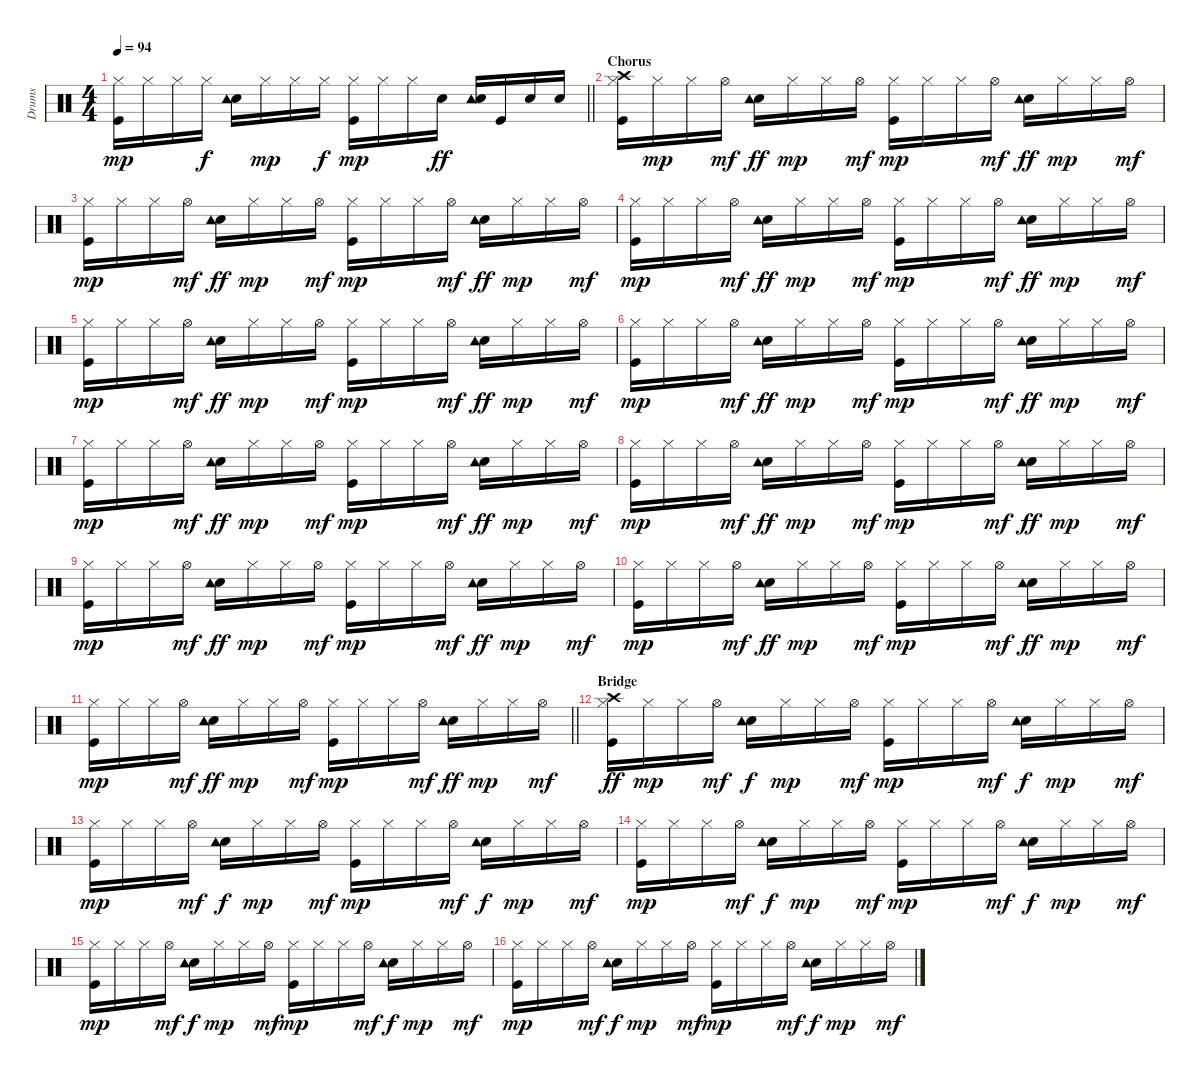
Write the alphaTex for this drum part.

\track ("Drums" "Drums") {instrument percussion}
\staff {score}
\articulation defaults
\ts (4 4)
\tempo 94
\clef neutral
\barLineRight lightlight
\ks c
("Hi-Hat (closed)" "Kick (hit)").16{dy mp} "Hi-Hat (closed)".16 "Hi-Hat (closed)".16 "Hi-Hat (closed)".16{dy f} ("Snare (hit) 2" "Tambourine (hit)").16 "Hi-Hat (closed)".16{dy mp} "Hi-Hat (closed)".16 "Hi-Hat (closed)".16{dy f} ("Hi-Hat (closed)" "Kick (hit)").16{dy mp} "Hi-Hat (closed)".16 "Hi-Hat (closed)".16 "Snare (hit) 2".16{dy ff} ("Tambourine (hit)" "Snare (hit) 2").16 "Kick (hit)".16 "Snare (hit) 2".16 "Snare (hit) 2".16 |
\section ("" "Chorus")
("Hi-Hat (closed)" "Kick (hit)" "Crash high (hit)").16 "Hi-Hat (closed)".16{dy mp} "Hi-Hat (closed)".16 "Hi-Hat (open)".16{dy mf} ("Snare (hit) 2" "Tambourine (hit)").16{dy ff} "Hi-Hat (closed)".16{dy mp} "Hi-Hat (closed)".16 "Hi-Hat (open)".16{dy mf} ("Hi-Hat (closed)" "Kick (hit)").16{dy mp} "Hi-Hat (closed)".16 "Hi-Hat (closed)".16 "Hi-Hat (open)".16{dy mf} ("Snare (hit) 2" "Tambourine (hit)").16{dy ff} "Hi-Hat (closed)".16{dy mp} "Hi-Hat (closed)".16 "Hi-Hat (open)".16{dy mf} |
("Hi-Hat (closed)" "Kick (hit)").16{dy mp} "Hi-Hat (closed)".16 "Hi-Hat (closed)".16 "Hi-Hat (open)".16{dy mf} ("Snare (hit) 2" "Tambourine (hit)").16{dy ff} "Hi-Hat (closed)".16{dy mp} "Hi-Hat (closed)".16 "Hi-Hat (open)".16{dy mf} ("Hi-Hat (closed)" "Kick (hit)").16{dy mp} "Hi-Hat (closed)".16 "Hi-Hat (closed)".16 "Hi-Hat (open)".16{dy mf} ("Snare (hit) 2" "Tambourine (hit)").16{dy ff} "Hi-Hat (closed)".16{dy mp} "Hi-Hat (closed)".16 "Hi-Hat (open)".16{dy mf} |
("Hi-Hat (closed)" "Kick (hit)").16{dy mp} "Hi-Hat (closed)".16 "Hi-Hat (closed)".16 "Hi-Hat (open)".16{dy mf} ("Snare (hit) 2" "Tambourine (hit)").16{dy ff} "Hi-Hat (closed)".16{dy mp} "Hi-Hat (closed)".16 "Hi-Hat (open)".16{dy mf} ("Hi-Hat (closed)" "Kick (hit)").16{dy mp} "Hi-Hat (closed)".16 "Hi-Hat (closed)".16 "Hi-Hat (open)".16{dy mf} ("Snare (hit) 2" "Tambourine (hit)").16{dy ff} "Hi-Hat (closed)".16{dy mp} "Hi-Hat (closed)".16 "Hi-Hat (open)".16{dy mf} |
("Hi-Hat (closed)" "Kick (hit)").16{dy mp} "Hi-Hat (closed)".16 "Hi-Hat (closed)".16 "Hi-Hat (open)".16{dy mf} ("Snare (hit) 2" "Tambourine (hit)").16{dy ff} "Hi-Hat (closed)".16{dy mp} "Hi-Hat (closed)".16 "Hi-Hat (open)".16{dy mf} ("Hi-Hat (closed)" "Kick (hit)").16{dy mp} "Hi-Hat (closed)".16 "Hi-Hat (closed)".16 "Hi-Hat (open)".16{dy mf} ("Snare (hit) 2" "Tambourine (hit)").16{dy ff} "Hi-Hat (closed)".16{dy mp} "Hi-Hat (closed)".16 "Hi-Hat (open)".16{dy mf} |
("Hi-Hat (closed)" "Kick (hit)").16{dy mp} "Hi-Hat (closed)".16 "Hi-Hat (closed)".16 "Hi-Hat (open)".16{dy mf} ("Snare (hit) 2" "Tambourine (hit)").16{dy ff} "Hi-Hat (closed)".16{dy mp} "Hi-Hat (closed)".16 "Hi-Hat (open)".16{dy mf} ("Hi-Hat (closed)" "Kick (hit)").16{dy mp} "Hi-Hat (closed)".16 "Hi-Hat (closed)".16 "Hi-Hat (open)".16{dy mf} ("Snare (hit) 2" "Tambourine (hit)").16{dy ff} "Hi-Hat (closed)".16{dy mp} "Hi-Hat (closed)".16 "Hi-Hat (open)".16{dy mf} |
("Hi-Hat (closed)" "Kick (hit)").16{dy mp} "Hi-Hat (closed)".16 "Hi-Hat (closed)".16 "Hi-Hat (open)".16{dy mf} ("Snare (hit) 2" "Tambourine (hit)").16{dy ff} "Hi-Hat (closed)".16{dy mp} "Hi-Hat (closed)".16 "Hi-Hat (open)".16{dy mf} ("Hi-Hat (closed)" "Kick (hit)").16{dy mp} "Hi-Hat (closed)".16 "Hi-Hat (closed)".16 "Hi-Hat (open)".16{dy mf} ("Snare (hit) 2" "Tambourine (hit)").16{dy ff} "Hi-Hat (closed)".16{dy mp} "Hi-Hat (closed)".16 "Hi-Hat (open)".16{dy mf} |
("Hi-Hat (closed)" "Kick (hit)").16{dy mp} "Hi-Hat (closed)".16 "Hi-Hat (closed)".16 "Hi-Hat (open)".16{dy mf} ("Snare (hit) 2" "Tambourine (hit)").16{dy ff} "Hi-Hat (closed)".16{dy mp} "Hi-Hat (closed)".16 "Hi-Hat (open)".16{dy mf} ("Hi-Hat (closed)" "Kick (hit)").16{dy mp} "Hi-Hat (closed)".16 "Hi-Hat (closed)".16 "Hi-Hat (open)".16{dy mf} ("Snare (hit) 2" "Tambourine (hit)").16{dy ff} "Hi-Hat (closed)".16{dy mp} "Hi-Hat (closed)".16 "Hi-Hat (open)".16{dy mf} |
("Hi-Hat (closed)" "Kick (hit)").16{dy mp} "Hi-Hat (closed)".16 "Hi-Hat (closed)".16 "Hi-Hat (open)".16{dy mf} ("Snare (hit) 2" "Tambourine (hit)").16{dy ff} "Hi-Hat (closed)".16{dy mp} "Hi-Hat (closed)".16 "Hi-Hat (open)".16{dy mf} ("Hi-Hat (closed)" "Kick (hit)").16{dy mp} "Hi-Hat (closed)".16 "Hi-Hat (closed)".16 "Hi-Hat (open)".16{dy mf} ("Snare (hit) 2" "Tambourine (hit)").16{dy ff} "Hi-Hat (closed)".16{dy mp} "Hi-Hat (closed)".16 "Hi-Hat (open)".16{dy mf} |
("Hi-Hat (closed)" "Kick (hit)").16{dy mp} "Hi-Hat (closed)".16 "Hi-Hat (closed)".16 "Hi-Hat (open)".16{dy mf} ("Snare (hit) 2" "Tambourine (hit)").16{dy ff} "Hi-Hat (closed)".16{dy mp} "Hi-Hat (closed)".16 "Hi-Hat (open)".16{dy mf} ("Hi-Hat (closed)" "Kick (hit)").16{dy mp} "Hi-Hat (closed)".16 "Hi-Hat (closed)".16 "Hi-Hat (open)".16{dy mf} ("Snare (hit) 2" "Tambourine (hit)").16{dy ff} "Hi-Hat (closed)".16{dy mp} "Hi-Hat (closed)".16 "Hi-Hat (open)".16{dy mf} |
\barLineRight lightlight
("Hi-Hat (closed)" "Kick (hit)").16{dy mp} "Hi-Hat (closed)".16 "Hi-Hat (closed)".16 "Hi-Hat (open)".16{dy mf} ("Snare (hit) 2" "Tambourine (hit)").16{dy ff} "Hi-Hat (closed)".16{dy mp} "Hi-Hat (closed)".16 "Hi-Hat (open)".16{dy mf} ("Hi-Hat (closed)" "Kick (hit)").16{dy mp} "Hi-Hat (closed)".16 "Hi-Hat (closed)".16 "Hi-Hat (open)".16{dy mf} ("Snare (hit) 2" "Tambourine (hit)").16{dy ff} "Hi-Hat (closed)".16{dy mp} "Hi-Hat (closed)".16 "Hi-Hat (open)".16{dy mf} |
\section ("" "Bridge")
("Hi-Hat (closed)" "Kick (hit)" "Crash high (hit)").16{dy ff} "Hi-Hat (closed)".16{dy mp} "Hi-Hat (closed)".16 "Hi-Hat (open)".16{dy mf} ("Snare (hit) 2" "Tambourine (hit)").16{dy f} "Hi-Hat (closed)".16{dy mp} "Hi-Hat (closed)".16 "Hi-Hat (open)".16{dy mf} ("Hi-Hat (closed)" "Kick (hit)").16{dy mp} "Hi-Hat (closed)".16 "Hi-Hat (closed)".16 "Hi-Hat (open)".16{dy mf} ("Snare (hit) 2" "Tambourine (hit)").16{dy f} "Hi-Hat (closed)".16{dy mp} "Hi-Hat (closed)".16 "Hi-Hat (open)".16{dy mf} |
("Hi-Hat (closed)" "Kick (hit)").16{dy mp} "Hi-Hat (closed)".16 "Hi-Hat (closed)".16 "Hi-Hat (open)".16{dy mf} ("Snare (hit) 2" "Tambourine (hit)").16{dy f} "Hi-Hat (closed)".16{dy mp} "Hi-Hat (closed)".16 "Hi-Hat (open)".16{dy mf} ("Hi-Hat (closed)" "Kick (hit)").16{dy mp} "Hi-Hat (closed)".16 "Hi-Hat (closed)".16 "Hi-Hat (open)".16{dy mf} ("Snare (hit) 2" "Tambourine (hit)").16{dy f} "Hi-Hat (closed)".16{dy mp} "Hi-Hat (closed)".16 "Hi-Hat (open)".16{dy mf} |
("Hi-Hat (closed)" "Kick (hit)").16{dy mp} "Hi-Hat (closed)".16 "Hi-Hat (closed)".16 "Hi-Hat (open)".16{dy mf} ("Snare (hit) 2" "Tambourine (hit)").16{dy f} "Hi-Hat (closed)".16{dy mp} "Hi-Hat (closed)".16 "Hi-Hat (open)".16{dy mf} ("Hi-Hat (closed)" "Kick (hit)").16{dy mp} "Hi-Hat (closed)".16 "Hi-Hat (closed)".16 "Hi-Hat (open)".16{dy mf} ("Snare (hit) 2" "Tambourine (hit)").16{dy f} "Hi-Hat (closed)".16{dy mp} "Hi-Hat (closed)".16 "Hi-Hat (open)".16{dy mf} |
("Hi-Hat (closed)" "Kick (hit)").16{dy mp} "Hi-Hat (closed)".16 "Hi-Hat (closed)".16 "Hi-Hat (open)".16{dy mf} ("Snare (hit) 2" "Tambourine (hit)").16{dy f} "Hi-Hat (closed)".16{dy mp} "Hi-Hat (closed)".16 "Hi-Hat (open)".16{dy mf} ("Hi-Hat (closed)" "Kick (hit)").16{dy mp} "Hi-Hat (closed)".16 "Hi-Hat (closed)".16 "Hi-Hat (open)".16{dy mf} ("Snare (hit) 2" "Tambourine (hit)").16{dy f} "Hi-Hat (closed)".16{dy mp} "Hi-Hat (closed)".16 "Hi-Hat (open)".16{dy mf} |
("Hi-Hat (closed)" "Kick (hit)").16{dy mp} "Hi-Hat (closed)".16 "Hi-Hat (closed)".16 "Hi-Hat (open)".16{dy mf} ("Snare (hit) 2" "Tambourine (hit)").16{dy f} "Hi-Hat (closed)".16{dy mp} "Hi-Hat (closed)".16 "Hi-Hat (open)".16{dy mf} ("Hi-Hat (closed)" "Kick (hit)").16{dy mp} "Hi-Hat (closed)".16 "Hi-Hat (closed)".16 "Hi-Hat (open)".16{dy mf} ("Snare (hit) 2" "Tambourine (hit)").16{dy f} "Hi-Hat (closed)".16{dy mp} "Hi-Hat (closed)".16 "Hi-Hat (open)".16{dy mf}
